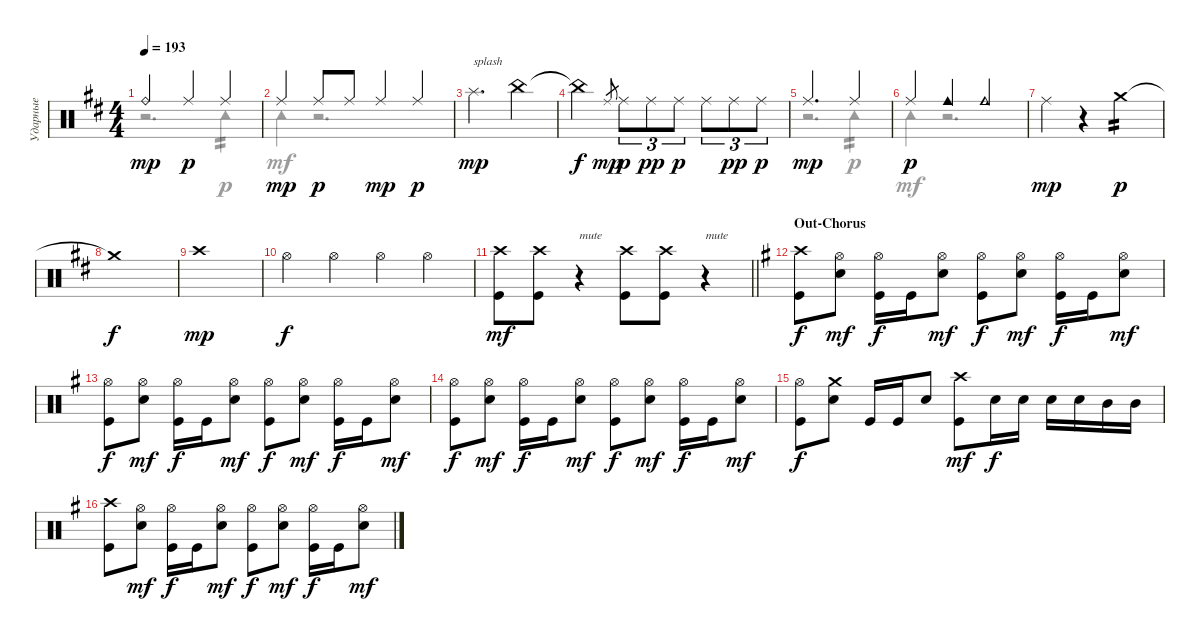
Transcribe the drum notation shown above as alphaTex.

\track ("Ударные" "Ударные") {instrument percussion}
\staff {score}
\articulation defaults
\voice
\ts (4 4)
\tempo 193
\clef neutral
\ks bminor "Ride (bell)".2{dy mp} "Ride (middle)".4{dy p} "Ride (middle)".4
|
"Ride (middle)".4{dy mp} "Ride (middle)".8{dy p} "Ride (middle)".8 "Ride (middle)".4{dy mp} "Ride (middle)".4{dy p} |
"Splash (hit)".2{d txt "splash" dy mp} "China (hit)".4 |
"China (hit)"{t}.2{dy f} "Ride (middle)".8{gr dy mp} "Ride (middle)".8{tu (3 2) dy p} "Ride (middle)".8{tu (3 2) dy pp} "Ride (middle)".8{tu (3 2) dy p} "Ride (middle)".8{tu (3 2)} "Ride (middle)".8{tu (3 2) dy pp} "Ride (middle)".8{tu (3 2) dy p} |
"Ride (middle)".2{d dy mp} "Ride (middle)".4 |
"Ride (middle)".4{dy p} "Cowbell medium (hit)".4 "Cowbell medium (hit)".2 |
"Ride (middle)".4{dy mp} r.4{volume 0} "Crash medium (hit)".2{tp 2 dy p volume 14} |
"Crash medium (hit)"{t}.1{dy f} |
"Crash high (hit)".1{dy mp} |
"Hi-Hat (open)".4{dy f} "Hi-Hat (open)".4 "Hi-Hat (open)".4 "Hi-Hat (open)".4 |
\barLineRight lightlight
("Kick (hit)" "Crash high (hit)").8{dy mf} ("Kick (hit)" "Crash high (hit)").8 r.4{txt "mute"} ("Kick (hit)" "Crash high (hit)").8 ("Kick (hit)" "Crash high (hit)").8 r.4{txt "mute"} |
\section ("" "Out-Chorus")
\ks eminor
("Kick (hit)" "Crash high (hit)").8{dy f} ("Snare (hit) 2" "Hi-Hat (open)").8{dy mf} ("Kick (hit)" "Hi-Hat (open)").16{dy f} "Kick (hit)".16 ("Snare (hit) 2" "Hi-Hat (open)").8{dy mf} ("Kick (hit)" "Hi-Hat (open)").8{dy f} ("Snare (hit) 2" "Hi-Hat (open)").8{dy mf} ("Kick (hit)" "Hi-Hat (open)").16{dy f} "Kick (hit)".16 ("Snare (hit) 2" "Hi-Hat (open)").8{dy mf} |
("Kick (hit)" "Hi-Hat (open)").8{dy f} ("Snare (hit) 2" "Hi-Hat (open)").8{dy mf} ("Kick (hit)" "Hi-Hat (open)").16{dy f} "Kick (hit)".16 ("Snare (hit) 2" "Hi-Hat (open)").8{dy mf} ("Kick (hit)" "Hi-Hat (open)").8{dy f} ("Snare (hit) 2" "Hi-Hat (open)").8{dy mf} ("Kick (hit)" "Hi-Hat (open)").16{dy f} "Kick (hit)".16 ("Snare (hit) 2" "Hi-Hat (open)").8{dy mf} |
("Kick (hit)" "Hi-Hat (open)").8{dy f} ("Snare (hit) 2" "Hi-Hat (open)").8{dy mf} ("Kick (hit)" "Hi-Hat (open)").16{dy f} "Kick (hit)".16 ("Snare (hit) 2" "Hi-Hat (open)").8{dy mf} ("Kick (hit)" "Hi-Hat (open)").8{dy f} ("Snare (hit) 2" "Hi-Hat (open)").8{dy mf} ("Kick (hit)" "Hi-Hat (open)").16{dy f} "Kick (hit)".16 ("Snare (hit) 2" "Hi-Hat (open)").8{dy mf} |
("Kick (hit)" "Hi-Hat (open)").8{dy f} ("Snare (hit) 2" "Crash medium (hit)").8 "Kick (hit)".16 "Kick (hit)".16 "Snare (hit) 2".8 ("Kick (hit)" "Crash high (hit)").8{dy mf} "Snare (hit) 2".16{dy f} "Snare (hit) 2".16 "Snare (hit) 2".16 "Snare (hit) 2".16 "Mid Tom (hit)".16 "Mid Tom (hit)".16 |
("Kick (hit)" "Crash high (hit)").8 ("Snare (hit) 2" "Hi-Hat (open)").8{dy mf} ("Kick (hit)" "Hi-Hat (open)").16{dy f} "Kick (hit)".16 ("Snare (hit) 2" "Hi-Hat (open)").8{dy mf} ("Kick (hit)" "Hi-Hat (open)").8{dy f} ("Snare (hit) 2" "Hi-Hat (open)").8{dy mf} ("Kick (hit)" "Hi-Hat (open)").16{dy f} "Kick (hit)".16 ("Snare (hit) 2" "Hi-Hat (open)").8{dy mf}
\voice
\clef neutral
\ottava regular
\simile none
\ks bminor
r.2{d dy mf} "Tambourine (hit)".4{tp 2 dy p} |
"Tambourine (hit)".4{dy mf} r.2{d} |
|
|
r.2{d} "Tambourine (hit)".4{tp 2 dy p} |
"Tambourine (hit)".4{dy mf} r.2{d} |
|
|
|
|
\barLineRight lightlight
|
\ks eminor
|
|
|
|
